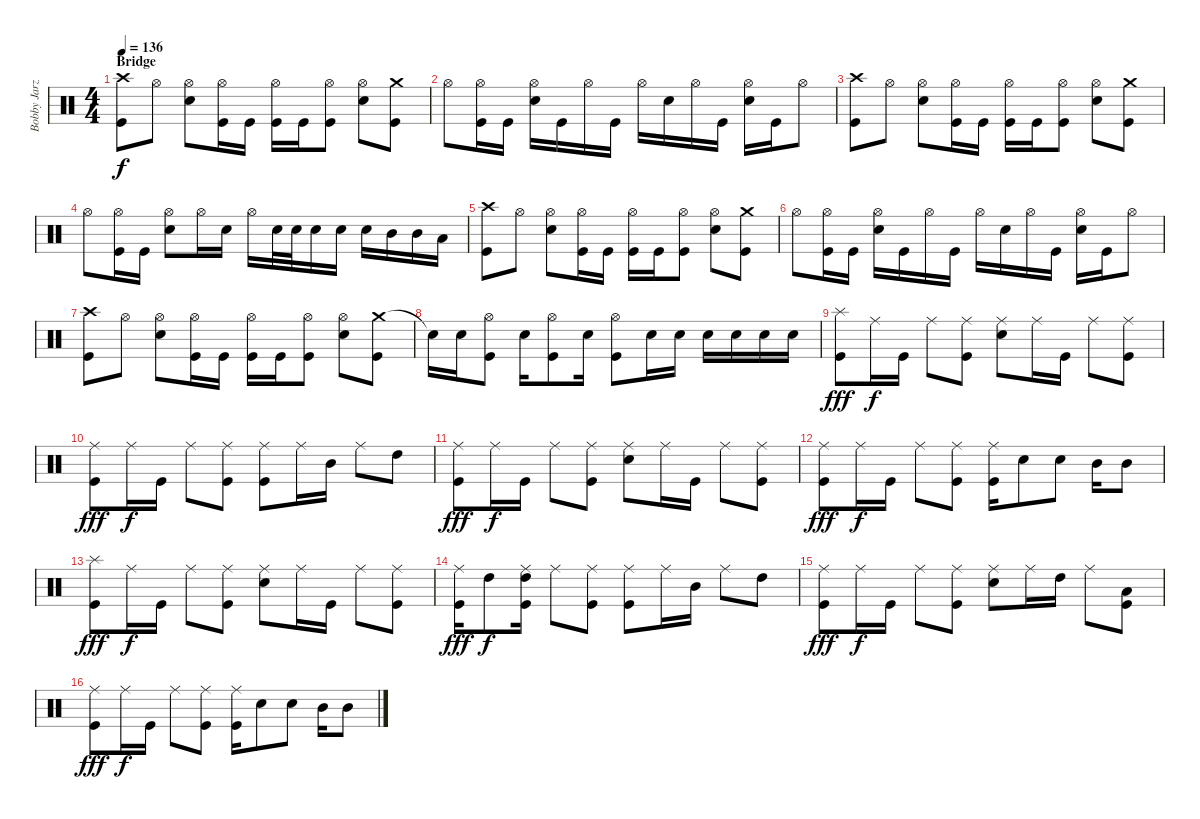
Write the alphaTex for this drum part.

\track ("Bobby Jarzombek" "Bobby Jarz") {instrument percussion}
\staff {score}
\articulation defaults
\ts (4 4)
\section ("" "Bridge")
\tempo 136
\clef neutral
\ks c
("Crash high (hit)" "Kick (hit)").8{dy f} "Hi-Hat (open)".8 ("Hi-Hat (open)" "Electric Snare (hit)").8 ("Hi-Hat (open)" "Kick (hit)").16 "Kick (hit)".16 ("Hi-Hat (open)" "Kick (hit)").16 "Kick (hit)".16 ("Hi-Hat (open)" "Kick (hit)").8 ("Hi-Hat (open)" "Electric Snare (hit)").8 ("Crash medium (hit)" "Kick (hit)").8 |
"Hi-Hat (open)".8 ("Hi-Hat (open)" "Kick (hit)").16 "Kick (hit)".16 ("Hi-Hat (open)" "Electric Snare (hit)").16 "Kick (hit)".16 "Hi-Hat (open)".16 "Kick (hit)".16 "Hi-Hat (open)".16 "Electric Snare (hit)".16 "Hi-Hat (open)".16 "Kick (hit)".16 ("Hi-Hat (open)" "Electric Snare (hit)").16 "Kick (hit)".16 "Hi-Hat (open)".8 |
("Crash high (hit)" "Kick (hit)").8 "Hi-Hat (open)".8 ("Hi-Hat (open)" "Electric Snare (hit)").8 ("Hi-Hat (open)" "Kick (hit)").16 "Kick (hit)".16 ("Hi-Hat (open)" "Kick (hit)").16 "Kick (hit)".16 ("Hi-Hat (open)" "Kick (hit)").8 ("Hi-Hat (open)" "Electric Snare (hit)").8 ("Crash medium (hit)" "Kick (hit)").8 |
"Hi-Hat (open)".8 ("Hi-Hat (open)" "Kick (hit)").16 "Kick (hit)".16 ("Hi-Hat (open)" "Electric Snare (hit)").8 "Hi-Hat (open)".16 "Electric Snare (hit)".16 "Hi-Hat (open)".16 "Electric Snare (hit)".32 "Electric Snare (hit)".32 "Electric Snare (hit)".16 "Electric Snare (hit)".16 "Electric Snare (hit)".16 "Mid Tom (hit)".16 "Mid Tom (hit)".16 "Low Tom (hit)".16 |
("Crash high (hit)" "Kick (hit)").8 "Hi-Hat (open)".8 ("Hi-Hat (open)" "Electric Snare (hit)").8 ("Hi-Hat (open)" "Kick (hit)").16 "Kick (hit)".16 ("Hi-Hat (open)" "Kick (hit)").16 "Kick (hit)".16 ("Hi-Hat (open)" "Kick (hit)").8 ("Hi-Hat (open)" "Electric Snare (hit)").8 ("Crash medium (hit)" "Kick (hit)").8 |
"Hi-Hat (open)".8 ("Hi-Hat (open)" "Kick (hit)").16 "Kick (hit)".16 ("Hi-Hat (open)" "Electric Snare (hit)").16 "Kick (hit)".16 "Hi-Hat (open)".16 "Kick (hit)".16 "Hi-Hat (open)".16 "Electric Snare (hit)".16 "Hi-Hat (open)".16 "Kick (hit)".16 ("Hi-Hat (open)" "Electric Snare (hit)").16 "Kick (hit)".16 "Hi-Hat (open)".8 |
("Crash high (hit)" "Kick (hit)").8 "Hi-Hat (open)".8 ("Hi-Hat (open)" "Electric Snare (hit)").8 ("Hi-Hat (open)" "Kick (hit)").16 "Kick (hit)".16 ("Hi-Hat (open)" "Kick (hit)").16 "Kick (hit)".16 ("Hi-Hat (open)" "Kick (hit)").8 ("Hi-Hat (open)" "Electric Snare (hit)").8 ("Crash medium (hit)" "Kick (hit)").8 |
"Snare (hit)"{t}.16 "Electric Snare (hit)".16 ("Hi-Hat (open)" "Kick (hit)").8 "Electric Snare (hit)".16 ("Hi-Hat (open)" "Kick (hit)").8 "Electric Snare (hit)".16 ("Hi-Hat (open)" "Kick (hit)").8 "Electric Snare (hit)".16 "Electric Snare (hit)".16 "Electric Snare (hit)".16 "Electric Snare (hit)".16 "Electric Snare (hit)".16 "Electric Snare (hit)".16 |
("Splash (hit)" "Kick (hit)").8{dy fff} "Ride (middle)".16{dy f} "Kick (hit)".16 "Ride (middle)".8 ("Ride (middle)" "Kick (hit)").8 ("Ride (middle)" "Electric Snare (hit)").8 "Ride (middle)".16 "Kick (hit)".16 "Ride (middle)".8 ("Ride (middle)" "Kick (hit)").8 |
("Ride (middle)" "Kick (hit)").8{dy fff} "Ride (middle)".16{dy f} "Kick (hit)".16 "Ride (middle)".8 ("Ride (middle)" "Kick (hit)").8 ("Ride (middle)" "Kick (hit)").8 "Ride (middle)".16 "Mid Tom (hit)".16 "Ride (middle)".8 "High Tom (hit)".8 |
("Ride (middle)" "Kick (hit)").8{dy fff} "Ride (middle)".16{dy f} "Kick (hit)".16 "Ride (middle)".8 ("Ride (middle)" "Kick (hit)").8 ("Ride (middle)" "Electric Snare (hit)").8 "Ride (middle)".16 "Kick (hit)".16 "Ride (middle)".8 ("Ride (middle)" "Kick (hit)").8 |
("Ride (middle)" "Kick (hit)").8{dy fff} "Ride (middle)".16{dy f} "Kick (hit)".16 "Ride (middle)".8 ("Ride (middle)" "Kick (hit)").8 ("Ride (middle)" "Kick (hit)").16 "Electric Snare (hit)".8 "Electric Snare (hit)".8 "Mid Tom (hit)".16 "Mid Tom (hit)".8 |
("Splash (hit)" "Kick (hit)").8{dy fff} "Ride (middle)".16{dy f} "Kick (hit)".16 "Ride (middle)".8 ("Ride (middle)" "Kick (hit)").8 ("Ride (middle)" "Electric Snare (hit)").8 "Ride (middle)".16 "Kick (hit)".16 "Ride (middle)".8 ("Ride (middle)" "Kick (hit)").8 |
("Ride (middle)" "Kick (hit)").16{dy fff} "High Tom (hit)".8{dy f} ("Ride (middle)" "High Tom (hit)" "Kick (hit)").16 "Ride (middle)".8 ("Ride (middle)" "Kick (hit)").8 ("Ride (middle)" "Kick (hit)").8 "Ride (middle)".16 "Mid Tom (hit)".16 "Ride (middle)".8 "High Tom (hit)".8 |
("Ride (middle)" "Kick (hit)").8{dy fff} "Ride (middle)".16{dy f} "Kick (hit)".16 "Ride (middle)".8 ("Ride (middle)" "Kick (hit)").8 ("Ride (middle)" "Electric Snare (hit)").8 "Ride (middle)".16 "High Tom (hit)".16 "Ride (middle)".8 ("Low Tom (hit)" "Kick (hit)").8 |
("Ride (middle)" "Kick (hit)").8{dy fff} "Ride (middle)".16{dy f} "Kick (hit)".16 "Ride (middle)".8 ("Ride (middle)" "Kick (hit)").8 ("Ride (middle)" "Kick (hit)").16 "Electric Snare (hit)".8 "Electric Snare (hit)".8 "Mid Tom (hit)".16 "Mid Tom (hit)".8
